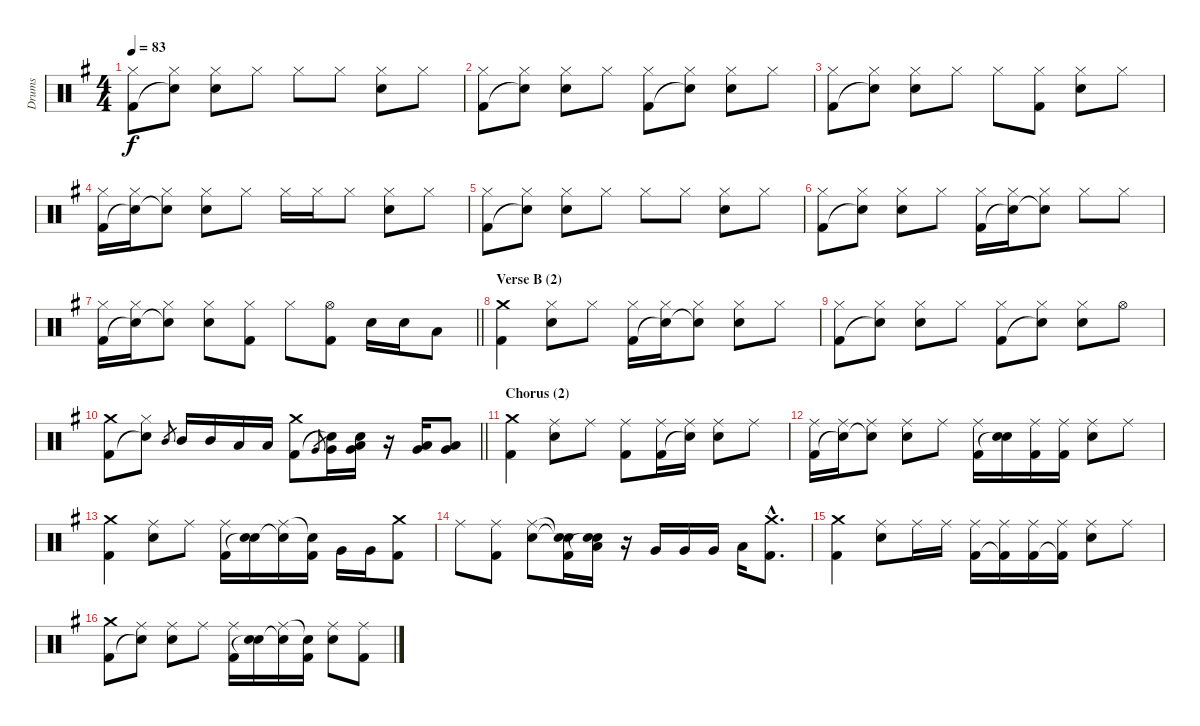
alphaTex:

\track ("Drums" "Drums") {instrument percussion}
\staff {score}
\articulation defaults
\ts (4 4)
\tempo 83
\clef neutral
\ks eminor
("Hi-Hat (closed)" "Kick (hit) 2").8{dy f} ("Hi-Hat (closed)" "Snare (hit)"{t}).8 ("Hi-Hat (closed)" "Electric Snare (hit)").8 "Hi-Hat (closed)".8 "Hi-Hat (closed)".8 "Hi-Hat (closed)".8 ("Hi-Hat (closed)" "Electric Snare (hit)").8 "Hi-Hat (closed)".8 |
("Hi-Hat (closed)" "Kick (hit) 2").8 ("Hi-Hat (closed)" "Snare (hit)"{t}).8 ("Hi-Hat (closed)" "Electric Snare (hit)").8 "Hi-Hat (closed)".8 ("Hi-Hat (closed)" "Kick (hit) 2").8 ("Hi-Hat (closed)" "Snare (hit)"{t}).8 ("Hi-Hat (closed)" "Electric Snare (hit)").8 "Hi-Hat (closed)".8 |
("Hi-Hat (closed)" "Kick (hit) 2").8 ("Hi-Hat (closed)" "Snare (hit)"{t}).8 ("Hi-Hat (closed)" "Electric Snare (hit)").8 "Hi-Hat (closed)".8 "Hi-Hat (closed)".8 ("Hi-Hat (closed)" "Kick (hit) 2").8 ("Hi-Hat (closed)" "Electric Snare (hit)").8 "Hi-Hat (closed)".8 |
("Hi-Hat (closed)" "Kick (hit) 2").16 ("Hi-Hat (closed)" "Snare (hit)"{t}).16 ("Hi-Hat (closed)" "Snare (hit)"{t}).8 ("Hi-Hat (closed)" "Electric Snare (hit)").8 "Hi-Hat (closed)".8 "Hi-Hat (closed)".16 "Hi-Hat (closed)".16 "Hi-Hat (closed)".8 ("Hi-Hat (closed)" "Electric Snare (hit)").8 "Hi-Hat (closed)".8 |
("Hi-Hat (closed)" "Kick (hit) 2").8 ("Hi-Hat (closed)" "Snare (hit)"{t}).8 ("Hi-Hat (closed)" "Electric Snare (hit)").8 "Hi-Hat (closed)".8 "Hi-Hat (closed)".8 "Hi-Hat (closed)".8 ("Hi-Hat (closed)" "Electric Snare (hit)").8 "Hi-Hat (closed)".8 |
("Hi-Hat (closed)" "Kick (hit) 2").8 ("Hi-Hat (closed)" "Snare (hit)"{t}).8 ("Hi-Hat (closed)" "Electric Snare (hit)").8 "Hi-Hat (closed)".8 ("Hi-Hat (closed)" "Kick (hit) 2").16 ("Hi-Hat (closed)" "Snare (hit)"{t}).16 ("Hi-Hat (closed)" "Snare (hit)"{t}).8 "Hi-Hat (closed)".8 "Hi-Hat (closed)".8 |
\barLineRight lightlight
("Hi-Hat (closed)" "Kick (hit) 2").16 ("Hi-Hat (closed)" "Snare (hit)"{t}).16 ("Hi-Hat (closed)" "Snare (hit)"{t}).8 ("Hi-Hat (closed)" "Electric Snare (hit)").8 ("Hi-Hat (closed)" "Kick (hit) 2").8 "Hi-Hat (closed)".8 ("Hi-Hat (open)" "Kick (hit) 2").8 "Electric Snare (hit)".16 "Electric Snare (hit)".16 "Low Tom (hit)".8 |
\section ("" "Verse B (2)")
("Crash medium (hit)" "Kick (hit) 2").4 ("Hi-Hat (closed)" "Electric Snare (hit)").8 "Hi-Hat (closed)".8 ("Hi-Hat (closed)" "Kick (hit) 2").16 ("Hi-Hat (closed)" "Snare (hit)"{t}).16 ("Hi-Hat (closed)" "Snare (hit)"{t}).8 ("Hi-Hat (closed)" "Electric Snare (hit)").8 "Hi-Hat (closed)".8 |
("Hi-Hat (closed)" "Kick (hit) 2").8 ("Hi-Hat (closed)" "Snare (hit)"{t}).8 ("Hi-Hat (closed)" "Electric Snare (hit)").8 "Hi-Hat (closed)".8 ("Hi-Hat (closed)" "Kick (hit) 2").8 ("Hi-Hat (closed)" "Snare (hit)"{t}).8 ("Hi-Hat (closed)" "Electric Snare (hit)").8 "Hi-Hat (open)".8 |
\barLineRight lightlight
("Crash medium (hit)" "Kick (hit) 2").8 ("Hi-Hat (closed)" "Snare (hit)"{t}).8 "Mid Tom (hit)".8{gr} "Mid Tom (hit)".16 "Mid Tom (hit)".16 "Low Tom (hit)".16 "Low Tom (hit)".16 ("Crash medium (hit)" "Kick (hit) 2").8 "Very Low Tom (hit)".8{gr} ("Very Low Tom (hit)" "Snare (hit)"{t}).16 ("Very Low Tom (hit)" "Low Floor Tom (hit)" "Snare (hit)").16 r.16 ("Very Low Tom (hit)" "Low Floor Tom (hit)").16 ("Very Low Tom (hit)" "Low Floor Tom (hit)").8 |
\section ("" "Chorus (2)")
("Crash medium (hit)" "Kick (hit) 2").4 ("Ride (middle)" "Electric Snare (hit)").8 "Ride (middle)".8 ("Ride (middle)" "Kick (hit) 2").8 ("Ride (middle)" "Kick (hit) 2").16 ("Ride (middle)" "Snare (hit)"{t}).16 ("Ride (middle)" "Electric Snare (hit)").8 "Ride (middle)".8 |
("Ride (middle)" "Kick (hit) 2").16 ("Ride (middle)" "Snare (hit)"{t}).16 ("Ride (middle)" "Snare (hit)"{t}).8 ("Ride (middle)" "Electric Snare (hit)").8 "Ride (middle)".8 ("Ride (middle)" "Kick (hit) 2").16 ("Electric Snare (hit)" "Snare (hit)"{t}).16 ("Ride (middle)" "Kick (hit) 2").16 ("Ride (middle)" "Kick (hit) 2").16 ("Ride (middle)" "Electric Snare (hit)").8 "Ride (middle)".8 |
("Crash medium (hit)" "Kick (hit) 2").4 ("Ride (middle)" "Electric Snare (hit)").8 "Ride (middle)".8 ("Ride (middle)" "Kick (hit) 2").16 ("Electric Snare (hit)" "Snare (hit)"{t}).16 ("Ride (middle)" "Snare (hit)"{t}).16 ("Snare (hit)"{t} "Kick (hit) 2").16 "Very Low Tom (hit)".16 "Very Low Tom (hit)".16 ("Crash medium (hit)" "Kick (hit) 2").8 |
"Ride (middle)".8 ("Ride (middle)" "Kick (hit) 2").8 ("Ride (middle)" "Electric Snare (hit)").8 ("Snare (hit)"{t} "Snare (hit)"{t} "Kick (hit) 2").16 ("Electric Snare (hit)" "Low Tom (hit)" "Snare (hit)"{t}).16 r.16 "Very Low Tom (hit)".16 "Very Low Tom (hit)".16 "Very Low Tom (hit)".16 "Low Floor Tom (hit)".16 ("Crash medium (hit)"{hac} "Kick (hit) 2"{hac}).8{d} |
("Crash medium (hit)" "Kick (hit) 2").4 ("Ride (middle)" "Electric Snare (hit)").8 "Ride (middle)".16 "Ride (middle)".16 ("Ride (middle)" "Kick (hit) 2").16 ("Ride (middle)" "Kick (hit) 2"{t}).16 ("Ride (middle)" "Kick (hit) 2").16 ("Ride (middle)" "Kick (hit) 2"{t}).16 ("Ride (middle)" "Electric Snare (hit)").8 "Ride (middle)".8 |
("Crash medium (hit)" "Kick (hit) 2").8 ("Ride (middle)" "Snare (hit)"{t}).8 ("Ride (middle)" "Electric Snare (hit)").8 "Ride (middle)".8 ("Ride (middle)" "Kick (hit) 2").16 ("Electric Snare (hit)" "Snare (hit)"{t}).16 ("Ride (middle)" "Snare (hit)"{t}).16 ("Snare (hit)"{t} "Kick (hit) 2").16 ("Ride (middle)" "Electric Snare (hit)").8 ("Ride (middle)" "Kick (hit) 2").8
